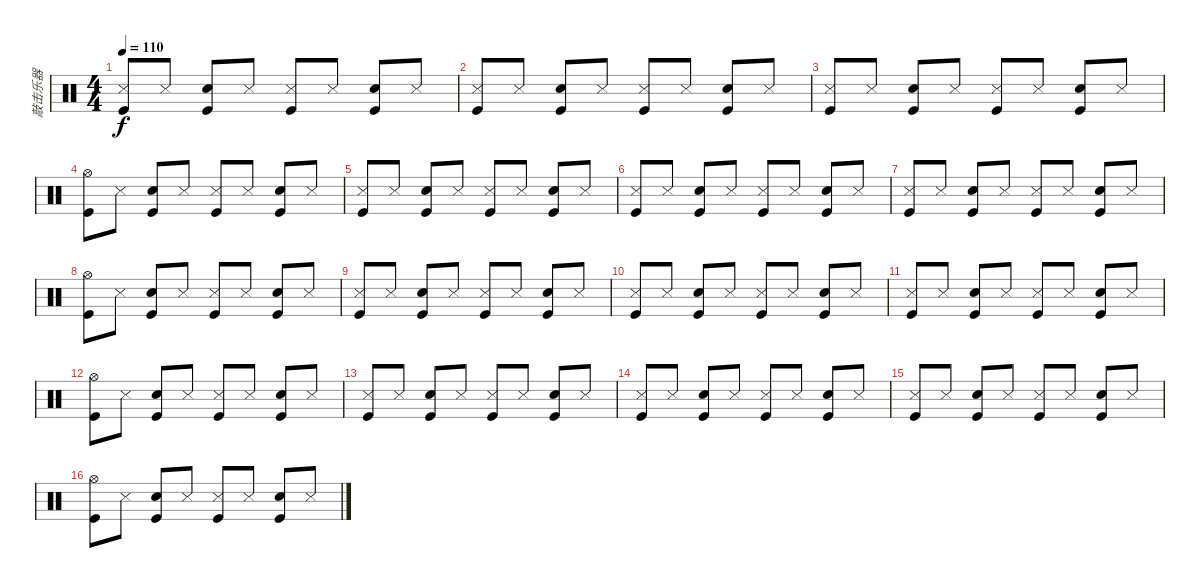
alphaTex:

\track ("敲击乐器" "敲击乐器") {instrument percussion}
\staff {score}
\articulation defaults
\ts (4 4)
\tempo 110
\clef neutral
\ks c
("Snare (side stick) 3" "Kick (hit)").8{dy f} "Snare (side stick) 3".8 ("Snare (hit) 2" "Kick (hit)").8 "Snare (side stick) 3".8 ("Snare (side stick) 3" "Kick (hit)").8 "Snare (side stick) 3".8 ("Snare (hit) 2" "Kick (hit)").8 "Snare (side stick) 3".8 |
("Snare (side stick) 3" "Kick (hit)").8 "Snare (side stick) 3".8 ("Snare (hit) 2" "Kick (hit)").8 "Snare (side stick) 3".8 ("Snare (side stick) 3" "Kick (hit)").8 "Snare (side stick) 3".8 ("Snare (hit) 2" "Kick (hit)").8 "Snare (side stick) 3".8 |
("Snare (side stick) 3" "Kick (hit)").8 "Snare (side stick) 3".8 ("Snare (hit) 2" "Kick (hit)").8 "Snare (side stick) 3".8 ("Snare (side stick) 3" "Kick (hit)").8 "Snare (side stick) 3".8 ("Snare (hit) 2" "Kick (hit)").8 "Snare (side stick) 3".8 |
("Hi-Hat (open)" "Kick (hit)").8 "Snare (side stick) 3".8 ("Snare (hit) 2" "Kick (hit)").8 "Snare (side stick) 3".8 ("Snare (side stick) 3" "Kick (hit)").8 "Snare (side stick) 3".8 ("Snare (hit) 2" "Kick (hit)").8 "Snare (side stick) 3".8 |
("Snare (side stick) 3" "Kick (hit)").8 "Snare (side stick) 3".8 ("Snare (hit) 2" "Kick (hit)").8 "Snare (side stick) 3".8 ("Snare (side stick) 3" "Kick (hit)").8 "Snare (side stick) 3".8 ("Snare (hit) 2" "Kick (hit)").8 "Snare (side stick) 3".8 |
("Snare (side stick) 3" "Kick (hit)").8 "Snare (side stick) 3".8 ("Snare (hit) 2" "Kick (hit)").8 "Snare (side stick) 3".8 ("Snare (side stick) 3" "Kick (hit)").8 "Snare (side stick) 3".8 ("Snare (hit) 2" "Kick (hit)").8 "Snare (side stick) 3".8 |
("Snare (side stick) 3" "Kick (hit)").8 "Snare (side stick) 3".8 ("Snare (hit) 2" "Kick (hit)").8 "Snare (side stick) 3".8 ("Snare (side stick) 3" "Kick (hit)").8 "Snare (side stick) 3".8 ("Snare (hit) 2" "Kick (hit)").8 "Snare (side stick) 3".8 |
("Hi-Hat (open)" "Kick (hit)").8 "Snare (side stick) 3".8 ("Snare (hit) 2" "Kick (hit)").8 "Snare (side stick) 3".8 ("Snare (side stick) 3" "Kick (hit)").8 "Snare (side stick) 3".8 ("Snare (hit) 2" "Kick (hit)").8 "Snare (side stick) 3".8 |
("Snare (side stick) 3" "Kick (hit)").8 "Snare (side stick) 3".8 ("Snare (hit) 2" "Kick (hit)").8 "Snare (side stick) 3".8 ("Snare (side stick) 3" "Kick (hit)").8 "Snare (side stick) 3".8 ("Snare (hit) 2" "Kick (hit)").8 "Snare (side stick) 3".8 |
("Snare (side stick) 3" "Kick (hit)").8 "Snare (side stick) 3".8 ("Snare (hit) 2" "Kick (hit)").8 "Snare (side stick) 3".8 ("Snare (side stick) 3" "Kick (hit)").8 "Snare (side stick) 3".8 ("Snare (hit) 2" "Kick (hit)").8 "Snare (side stick) 3".8 |
("Snare (side stick) 3" "Kick (hit)").8 "Snare (side stick) 3".8 ("Snare (hit) 2" "Kick (hit)").8 "Snare (side stick) 3".8 ("Snare (side stick) 3" "Kick (hit)").8 "Snare (side stick) 3".8 ("Snare (hit) 2" "Kick (hit)").8 "Snare (side stick) 3".8 |
("Hi-Hat (open)" "Kick (hit)").8 "Snare (side stick) 3".8 ("Snare (hit) 2" "Kick (hit)").8 "Snare (side stick) 3".8 ("Snare (side stick) 3" "Kick (hit)").8 "Snare (side stick) 3".8 ("Snare (hit) 2" "Kick (hit)").8 "Snare (side stick) 3".8 |
("Snare (side stick) 3" "Kick (hit)").8 "Snare (side stick) 3".8 ("Snare (hit) 2" "Kick (hit)").8 "Snare (side stick) 3".8 ("Snare (side stick) 3" "Kick (hit)").8 "Snare (side stick) 3".8 ("Snare (hit) 2" "Kick (hit)").8 "Snare (side stick) 3".8 |
("Snare (side stick) 3" "Kick (hit)").8 "Snare (side stick) 3".8 ("Snare (hit) 2" "Kick (hit)").8 "Snare (side stick) 3".8 ("Snare (side stick) 3" "Kick (hit)").8 "Snare (side stick) 3".8 ("Snare (hit) 2" "Kick (hit)").8 "Snare (side stick) 3".8 |
("Snare (side stick) 3" "Kick (hit)").8 "Snare (side stick) 3".8 ("Snare (hit) 2" "Kick (hit)").8 "Snare (side stick) 3".8 ("Snare (side stick) 3" "Kick (hit)").8 "Snare (side stick) 3".8 ("Snare (hit) 2" "Kick (hit)").8 "Snare (side stick) 3".8 |
("Hi-Hat (open)" "Kick (hit)").8 "Snare (side stick) 3".8 ("Snare (hit) 2" "Kick (hit)").8 "Snare (side stick) 3".8 ("Snare (side stick) 3" "Kick (hit)").8 "Snare (side stick) 3".8 ("Snare (hit) 2" "Kick (hit)").8 "Snare (side stick) 3".8
